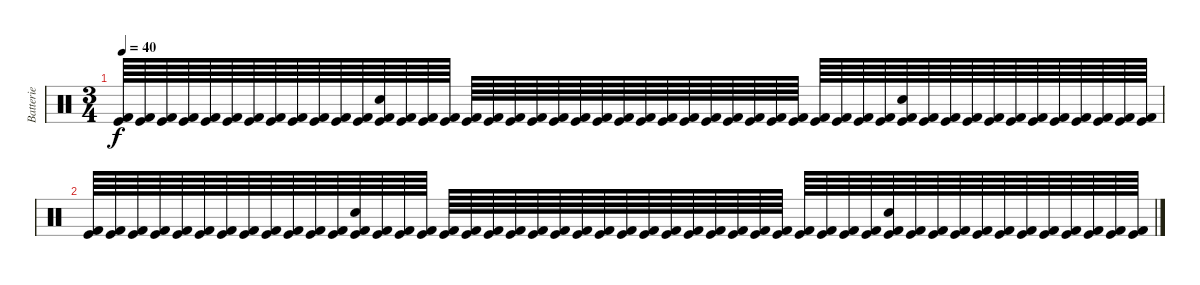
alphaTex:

\track ("Batterie" "Batterie") {instrument percussion}
\staff {score}
\articulation defaults
\ts (3 4)
\tempo 40
\clef neutral
\ks c
("Kick (hit)" "Kick (hit) 2").64{dy f} ("Kick (hit)" "Kick (hit) 2").64 ("Kick (hit)" "Kick (hit) 2").64 ("Kick (hit)" "Kick (hit) 2").64 ("Kick (hit)" "Kick (hit) 2").64 ("Kick (hit)" "Kick (hit) 2").64 ("Kick (hit)" "Kick (hit) 2").64 ("Kick (hit)" "Kick (hit) 2").64 ("Kick (hit)" "Kick (hit) 2").64 ("Kick (hit)" "Kick (hit) 2").64 ("Kick (hit)" "Kick (hit) 2").64 ("Kick (hit)" "Kick (hit) 2").64 ("Kick (hit)" "Kick (hit) 2" "Electric Snare (hit)").64 ("Kick (hit)" "Kick (hit) 2").64 ("Kick (hit)" "Kick (hit) 2").64 ("Kick (hit)" "Kick (hit) 2").64 ("Kick (hit)" "Kick (hit) 2").64 ("Kick (hit)" "Kick (hit) 2").64 ("Kick (hit)" "Kick (hit) 2").64 ("Kick (hit)" "Kick (hit) 2").64 ("Kick (hit)" "Kick (hit) 2").64 ("Kick (hit)" "Kick (hit) 2").64 ("Kick (hit)" "Kick (hit) 2").64 ("Kick (hit)" "Kick (hit) 2").64 ("Kick (hit)" "Kick (hit) 2").64 ("Kick (hit)" "Kick (hit) 2").64 ("Kick (hit)" "Kick (hit) 2").64 ("Kick (hit)" "Kick (hit) 2").64 ("Kick (hit)" "Kick (hit) 2").64 ("Kick (hit)" "Kick (hit) 2").64 ("Kick (hit)" "Kick (hit) 2").64 ("Kick (hit)" "Kick (hit) 2").64 ("Kick (hit)" "Kick (hit) 2").64 ("Kick (hit)" "Kick (hit) 2").64 ("Kick (hit)" "Kick (hit) 2").64 ("Kick (hit)" "Kick (hit) 2").64 ("Kick (hit)" "Kick (hit) 2" "Electric Snare (hit)").64 ("Kick (hit)" "Kick (hit) 2").64 ("Kick (hit)" "Kick (hit) 2").64 ("Kick (hit)" "Kick (hit) 2").64 ("Kick (hit)" "Kick (hit) 2").64 ("Kick (hit)" "Kick (hit) 2").64 ("Kick (hit)" "Kick (hit) 2").64 ("Kick (hit)" "Kick (hit) 2").64 ("Kick (hit)" "Kick (hit) 2").64 ("Kick (hit)" "Kick (hit) 2").64 ("Kick (hit)" "Kick (hit) 2").64 ("Kick (hit)" "Kick (hit) 2").64 |
("Kick (hit)" "Kick (hit) 2").64 ("Kick (hit)" "Kick (hit) 2").64 ("Kick (hit)" "Kick (hit) 2").64 ("Kick (hit)" "Kick (hit) 2").64 ("Kick (hit)" "Kick (hit) 2").64 ("Kick (hit)" "Kick (hit) 2").64 ("Kick (hit)" "Kick (hit) 2").64 ("Kick (hit)" "Kick (hit) 2").64 ("Kick (hit)" "Kick (hit) 2").64 ("Kick (hit)" "Kick (hit) 2").64 ("Kick (hit)" "Kick (hit) 2").64 ("Kick (hit)" "Kick (hit) 2").64 ("Kick (hit)" "Kick (hit) 2" "Electric Snare (hit)").64 ("Kick (hit)" "Kick (hit) 2").64 ("Kick (hit)" "Kick (hit) 2").64 ("Kick (hit)" "Kick (hit) 2").64 ("Kick (hit)" "Kick (hit) 2").64 ("Kick (hit)" "Kick (hit) 2").64 ("Kick (hit)" "Kick (hit) 2").64 ("Kick (hit)" "Kick (hit) 2").64 ("Kick (hit)" "Kick (hit) 2").64 ("Kick (hit)" "Kick (hit) 2").64 ("Kick (hit)" "Kick (hit) 2").64 ("Kick (hit)" "Kick (hit) 2").64 ("Kick (hit)" "Kick (hit) 2").64 ("Kick (hit)" "Kick (hit) 2").64 ("Kick (hit)" "Kick (hit) 2").64 ("Kick (hit)" "Kick (hit) 2").64 ("Kick (hit)" "Kick (hit) 2").64 ("Kick (hit)" "Kick (hit) 2").64 ("Kick (hit)" "Kick (hit) 2").64 ("Kick (hit)" "Kick (hit) 2").64 ("Kick (hit)" "Kick (hit) 2").64 ("Kick (hit)" "Kick (hit) 2").64 ("Kick (hit)" "Kick (hit) 2").64 ("Kick (hit)" "Kick (hit) 2").64 ("Kick (hit)" "Kick (hit) 2" "Electric Snare (hit)").64 ("Kick (hit)" "Kick (hit) 2").64 ("Kick (hit)" "Kick (hit) 2").64 ("Kick (hit)" "Kick (hit) 2").64 ("Kick (hit)" "Kick (hit) 2").64 ("Kick (hit)" "Kick (hit) 2").64 ("Kick (hit)" "Kick (hit) 2").64 ("Kick (hit)" "Kick (hit) 2").64 ("Kick (hit)" "Kick (hit) 2").64 ("Kick (hit)" "Kick (hit) 2").64 ("Kick (hit)" "Kick (hit) 2").64 ("Kick (hit)" "Kick (hit) 2").64
